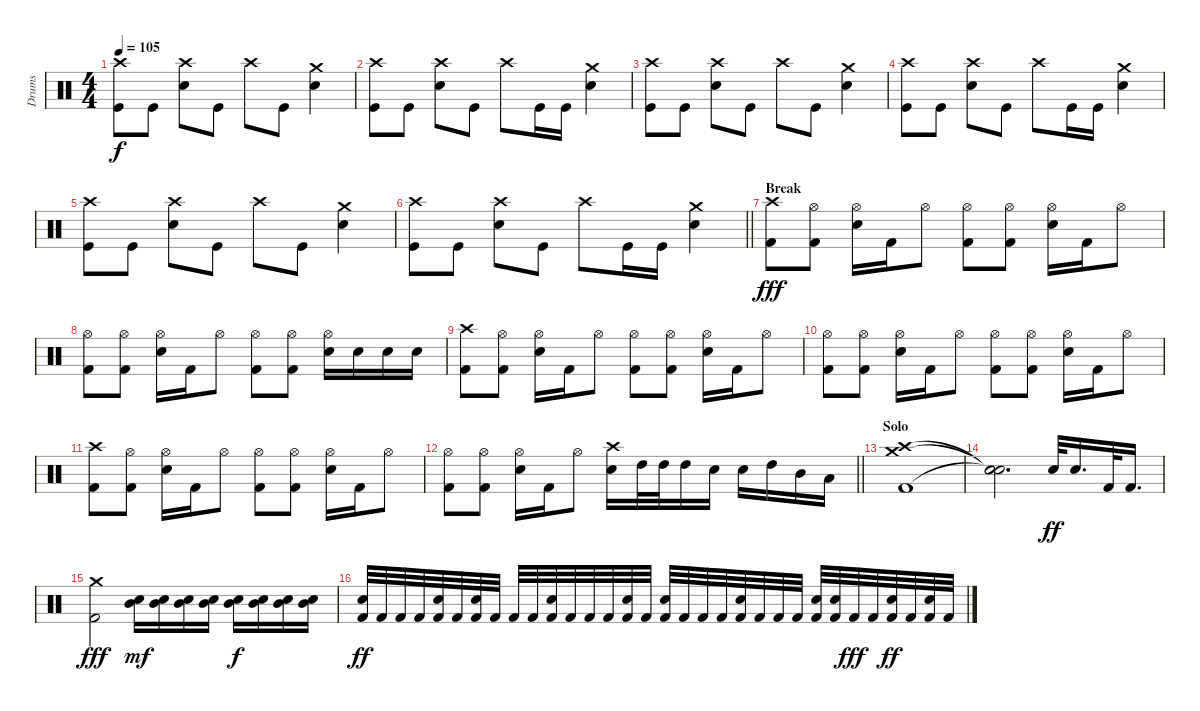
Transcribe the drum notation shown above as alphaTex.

\track ("Drums" "Drums") {instrument percussion}
\staff {score}
\articulation defaults
\ts (4 4)
\tempo 105
\clef neutral
\ks c
("Crash high (hit)" "Kick (hit)").8{dy f} "Kick (hit)".8 ("Crash high (hit)" "Snare (hit) 2").8 "Kick (hit)".8 "Crash high (hit)".8 "Kick (hit)".8 ("Crash medium (hit)" "Snare (hit) 2").4 |
("Crash high (hit)" "Kick (hit)").8 "Kick (hit)".8 ("Crash high (hit)" "Snare (hit) 2").8 "Kick (hit)".8 "Crash high (hit)".8 "Kick (hit)".16 "Kick (hit)".16 ("Crash medium (hit)" "Snare (hit) 2").4 |
("Crash high (hit)" "Kick (hit)").8 "Kick (hit)".8 ("Crash high (hit)" "Snare (hit) 2").8 "Kick (hit)".8 "Crash high (hit)".8 "Kick (hit)".8 ("Crash medium (hit)" "Snare (hit) 2").4 |
("Crash high (hit)" "Kick (hit)").8 "Kick (hit)".8 ("Crash high (hit)" "Snare (hit) 2").8 "Kick (hit)".8 "Crash high (hit)".8 "Kick (hit)".16 "Kick (hit)".16 ("Crash medium (hit)" "Snare (hit) 2").4 |
("Crash high (hit)" "Kick (hit)").8 "Kick (hit)".8 ("Crash high (hit)" "Snare (hit) 2").8 "Kick (hit)".8 "Crash high (hit)".8 "Kick (hit)".8 ("Crash medium (hit)" "Snare (hit) 2").4 |
\barLineRight lightlight
("Crash high (hit)" "Kick (hit)").8 "Kick (hit)".8 ("Crash high (hit)" "Snare (hit) 2").8 "Kick (hit)".8 "Crash high (hit)".8 "Kick (hit)".16 "Kick (hit)".16 ("Crash medium (hit)" "Snare (hit) 2").4 |
\section ("" "Break")
("Crash high (hit)" "Kick (hit) 2").8{dy fff} ("Hi-Hat (open)" "Kick (hit) 2").8 ("Hi-Hat (open)" "Electric Snare (hit)").16 "Kick (hit) 2".16 "Hi-Hat (open)".8 ("Hi-Hat (open)" "Kick (hit) 2").8 ("Hi-Hat (open)" "Kick (hit) 2").8 ("Hi-Hat (open)" "Electric Snare (hit)").16 "Kick (hit) 2".16 "Hi-Hat (open)".8 |
("Hi-Hat (open)" "Kick (hit) 2").8 ("Hi-Hat (open)" "Kick (hit) 2").8 ("Hi-Hat (open)" "Electric Snare (hit)").16 "Kick (hit) 2".16 "Hi-Hat (open)".8 ("Hi-Hat (open)" "Kick (hit) 2").8 ("Hi-Hat (open)" "Kick (hit) 2").8 ("Hi-Hat (open)" "Electric Snare (hit)").16 "Electric Snare (hit)".16 "Electric Snare (hit)".16 "Electric Snare (hit)".16 |
("Crash high (hit)" "Kick (hit) 2").8 ("Hi-Hat (open)" "Kick (hit) 2").8 ("Hi-Hat (open)" "Electric Snare (hit)").16 "Kick (hit) 2".16 "Hi-Hat (open)".8 ("Hi-Hat (open)" "Kick (hit) 2").8 ("Hi-Hat (open)" "Kick (hit) 2").8 ("Hi-Hat (open)" "Electric Snare (hit)").16 "Kick (hit) 2".16 "Hi-Hat (open)".8 |
("Hi-Hat (open)" "Kick (hit) 2").8 ("Hi-Hat (open)" "Kick (hit) 2").8 ("Hi-Hat (open)" "Electric Snare (hit)").16 "Kick (hit) 2".16 "Hi-Hat (open)".8 ("Hi-Hat (open)" "Kick (hit) 2").8 ("Hi-Hat (open)" "Kick (hit) 2").8 ("Hi-Hat (open)" "Electric Snare (hit)").16 "Kick (hit) 2".16 "Hi-Hat (open)".8 |
("Crash high (hit)" "Kick (hit) 2").8 ("Hi-Hat (open)" "Kick (hit) 2").8 ("Hi-Hat (open)" "Electric Snare (hit)").16 "Kick (hit) 2".16 "Hi-Hat (open)".8 ("Hi-Hat (open)" "Kick (hit) 2").8 ("Hi-Hat (open)" "Kick (hit) 2").8 ("Hi-Hat (open)" "Electric Snare (hit)").16 "Kick (hit) 2".16 "Hi-Hat (open)".8 |
\barLineRight lightlight
("Hi-Hat (open)" "Kick (hit) 2").8 ("Hi-Hat (open)" "Kick (hit) 2").8 ("Hi-Hat (open)" "Electric Snare (hit)").16 "Kick (hit) 2".16 "Hi-Hat (open)".8 ("Crash high (hit)" "Electric Snare (hit)").16 "High Tom (hit)".32 "High Tom (hit)".32 "High Tom (hit)".16 "Electric Snare (hit)".16 "Electric Snare (hit)".16 "High Tom (hit)".16 "Mid Tom (hit)".16 "Low Tom (hit)".16 |
\section ("" "Solo")
("Crash medium (hit)" "Crash high (hit)" "Kick (hit) 2").1 |
("Snare (hit)"{t} "Snare (hit)"{t} "Snare (hit)"{t}).2{d} "Electric Snare (hit)".32{dy ff} "Electric Snare (hit)".16{d} "Kick (hit) 2".32 "Kick (hit) 2".16{d} |
("Crash medium (hit)" "Kick (hit) 2").2{dy fff} ("Electric Snare (hit)" "Mid Tom (hit)").16{dy mf} ("Electric Snare (hit)" "Mid Tom (hit)").16 ("Electric Snare (hit)" "Mid Tom (hit)").16 ("Electric Snare (hit)" "Mid Tom (hit)").16 ("Electric Snare (hit)" "Mid Tom (hit)").16{dy f} ("Electric Snare (hit)" "Mid Tom (hit)").16 ("Electric Snare (hit)" "Mid Tom (hit)").16 ("Electric Snare (hit)" "Mid Tom (hit)").16 |
("Electric Snare (hit)" "Kick (hit) 2").32{dy ff} "Kick (hit) 2".32 "Kick (hit) 2".32 "Kick (hit) 2".32 ("Electric Snare (hit)" "Kick (hit) 2").32 "Kick (hit) 2".32 ("Electric Snare (hit)" "Kick (hit) 2").32 "Kick (hit) 2".32 "Kick (hit) 2".32 "Kick (hit) 2".32 ("Electric Snare (hit)" "Kick (hit) 2").32 "Kick (hit) 2".32 "Kick (hit) 2".32 "Kick (hit) 2".32 ("Electric Snare (hit)" "Kick (hit) 2").32 "Kick (hit) 2".32 ("Electric Snare (hit)" "Kick (hit) 2").32 "Kick (hit) 2".32 "Kick (hit) 2".32 "Kick (hit) 2".32 ("Electric Snare (hit)" "Kick (hit) 2").32 "Kick (hit) 2".32 "Kick (hit) 2".32 "Kick (hit) 2".32 ("Electric Snare (hit)" "Kick (hit) 2").32 ("Electric Snare (hit)" "Kick (hit) 2").32 "Kick (hit) 2".32{dy fff} "Kick (hit) 2".32 ("Electric Snare (hit)" "Kick (hit) 2").32{dy ff} "Kick (hit) 2".32 ("Electric Snare (hit)" "Kick (hit) 2").32 "Kick (hit) 2".32
